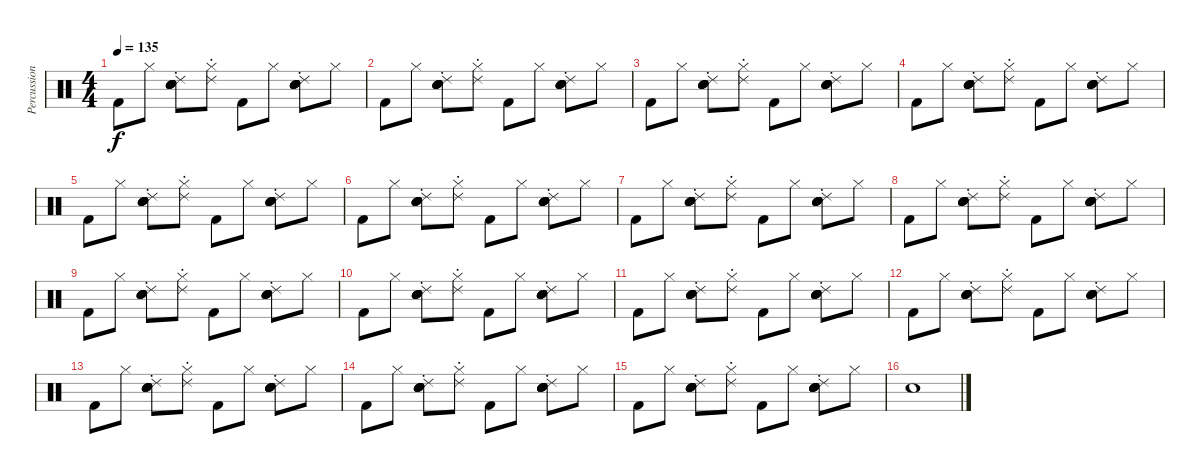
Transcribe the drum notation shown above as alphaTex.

\track ("Percussion" "Percussion") {instrument percussion}
\staff {score}
\articulation defaults
\ts (4 4)
\tempo 135
\clef neutral
\ks c "Kick (hit) 2".8{dy f} "Hi-Hat (closed)".8
("Snare (hit) 2" "Ride (choke) 2" "Hand Clap (hit)" "Hand Clap (hit)" "Hand Clap (hit)").8 ("Hi-Hat (closed)" "Ride (choke) 2").8 "Kick (hit) 2".8 "Hi-Hat (closed)".8 ("Snare (hit) 2" "Ride (choke) 2" "Hand Clap (hit)" "Hand Clap (hit)" "Hand Clap (hit)").8 "Hi-Hat (closed)".8 |
"Kick (hit) 2".8 "Hi-Hat (closed)".8 ("Snare (hit) 2" "Ride (choke) 2" "Hand Clap (hit)" "Hand Clap (hit)" "Hand Clap (hit)").8 ("Hi-Hat (closed)" "Ride (choke) 2").8 "Kick (hit) 2".8 "Hi-Hat (closed)".8 ("Snare (hit) 2" "Ride (choke) 2" "Hand Clap (hit)" "Hand Clap (hit)" "Hand Clap (hit)").8 "Hi-Hat (closed)".8 |
"Kick (hit) 2".8 "Hi-Hat (closed)".8 ("Snare (hit) 2" "Ride (choke) 2" "Hand Clap (hit)" "Hand Clap (hit)" "Hand Clap (hit)").8 ("Hi-Hat (closed)" "Ride (choke) 2").8 "Kick (hit) 2".8 "Hi-Hat (closed)".8 ("Snare (hit) 2" "Ride (choke) 2" "Hand Clap (hit)" "Hand Clap (hit)" "Hand Clap (hit)").8 "Hi-Hat (closed)".8 |
"Kick (hit) 2".8 "Hi-Hat (closed)".8 ("Snare (hit) 2" "Ride (choke) 2" "Hand Clap (hit)" "Hand Clap (hit)" "Hand Clap (hit)").8 ("Hi-Hat (closed)" "Ride (choke) 2").8 "Kick (hit) 2".8 "Hi-Hat (closed)".8 ("Snare (hit) 2" "Ride (choke) 2" "Hand Clap (hit)" "Hand Clap (hit)" "Hand Clap (hit)").8 "Hi-Hat (closed)".8 |
"Kick (hit) 2".8 "Hi-Hat (closed)".8 ("Snare (hit) 2" "Ride (choke) 2" "Hand Clap (hit)" "Hand Clap (hit)" "Hand Clap (hit)").8 ("Hi-Hat (closed)" "Ride (choke) 2").8 "Kick (hit) 2".8 "Hi-Hat (closed)".8 ("Snare (hit) 2" "Ride (choke) 2" "Hand Clap (hit)" "Hand Clap (hit)" "Hand Clap (hit)").8 "Hi-Hat (closed)".8 |
"Kick (hit) 2".8 "Hi-Hat (closed)".8 ("Snare (hit) 2" "Ride (choke) 2" "Hand Clap (hit)" "Hand Clap (hit)" "Hand Clap (hit)").8 ("Hi-Hat (closed)" "Ride (choke) 2").8 "Kick (hit) 2".8 "Hi-Hat (closed)".8 ("Snare (hit) 2" "Ride (choke) 2" "Hand Clap (hit)" "Hand Clap (hit)" "Hand Clap (hit)").8 "Hi-Hat (closed)".8 |
"Kick (hit) 2".8 "Hi-Hat (closed)".8 ("Snare (hit) 2" "Ride (choke) 2" "Hand Clap (hit)" "Hand Clap (hit)" "Hand Clap (hit)").8 ("Hi-Hat (closed)" "Ride (choke) 2").8 "Kick (hit) 2".8 "Hi-Hat (closed)".8 ("Snare (hit) 2" "Ride (choke) 2" "Hand Clap (hit)" "Hand Clap (hit)" "Hand Clap (hit)").8 "Hi-Hat (closed)".8 |
"Kick (hit) 2".8 "Hi-Hat (closed)".8 ("Snare (hit) 2" "Ride (choke) 2" "Hand Clap (hit)" "Hand Clap (hit)" "Hand Clap (hit)").8 ("Hi-Hat (closed)" "Ride (choke) 2").8 "Kick (hit) 2".8 "Hi-Hat (closed)".8 ("Snare (hit) 2" "Ride (choke) 2" "Hand Clap (hit)" "Hand Clap (hit)" "Hand Clap (hit)").8 "Hi-Hat (closed)".8 |
"Kick (hit) 2".8 "Hi-Hat (closed)".8 ("Snare (hit) 2" "Ride (choke) 2" "Hand Clap (hit)" "Hand Clap (hit)" "Hand Clap (hit)").8 ("Hi-Hat (closed)" "Ride (choke) 2").8 "Kick (hit) 2".8 "Hi-Hat (closed)".8 ("Snare (hit) 2" "Ride (choke) 2" "Hand Clap (hit)" "Hand Clap (hit)" "Hand Clap (hit)").8 "Hi-Hat (closed)".8 |
"Kick (hit) 2".8 "Hi-Hat (closed)".8 ("Snare (hit) 2" "Ride (choke) 2" "Hand Clap (hit)" "Hand Clap (hit)" "Hand Clap (hit)").8 ("Hi-Hat (closed)" "Ride (choke) 2").8 "Kick (hit) 2".8 "Hi-Hat (closed)".8 ("Snare (hit) 2" "Ride (choke) 2" "Hand Clap (hit)" "Hand Clap (hit)" "Hand Clap (hit)").8 "Hi-Hat (closed)".8 |
"Kick (hit) 2".8 "Hi-Hat (closed)".8 ("Snare (hit) 2" "Ride (choke) 2" "Hand Clap (hit)" "Hand Clap (hit)" "Hand Clap (hit)").8 ("Hi-Hat (closed)" "Ride (choke) 2").8 "Kick (hit) 2".8 "Hi-Hat (closed)".8 ("Snare (hit) 2" "Ride (choke) 2" "Hand Clap (hit)" "Hand Clap (hit)" "Hand Clap (hit)").8 "Hi-Hat (closed)".8 |
"Kick (hit) 2".8 "Hi-Hat (closed)".8 ("Snare (hit) 2" "Ride (choke) 2" "Hand Clap (hit)" "Hand Clap (hit)" "Hand Clap (hit)").8 ("Hi-Hat (closed)" "Ride (choke) 2").8 "Kick (hit) 2".8 "Hi-Hat (closed)".8 ("Snare (hit) 2" "Ride (choke) 2" "Hand Clap (hit)" "Hand Clap (hit)" "Hand Clap (hit)").8 "Hi-Hat (closed)".8 |
"Kick (hit) 2".8 "Hi-Hat (closed)".8 ("Snare (hit) 2" "Ride (choke) 2" "Hand Clap (hit)" "Hand Clap (hit)" "Hand Clap (hit)").8 ("Hi-Hat (closed)" "Ride (choke) 2").8 "Kick (hit) 2".8 "Hi-Hat (closed)".8 ("Snare (hit) 2" "Ride (choke) 2" "Hand Clap (hit)" "Hand Clap (hit)" "Hand Clap (hit)").8 "Hi-Hat (closed)".8 |
"Kick (hit) 2".8 "Hi-Hat (closed)".8 ("Snare (hit) 2" "Ride (choke) 2" "Hand Clap (hit)" "Hand Clap (hit)" "Hand Clap (hit)").8 ("Hi-Hat (closed)" "Ride (choke) 2").8 "Kick (hit) 2".8 "Hi-Hat (closed)".8 ("Snare (hit) 2" "Ride (choke) 2" "Hand Clap (hit)" "Hand Clap (hit)" "Hand Clap (hit)").8 "Hi-Hat (closed)".8 |
"Kick (hit) 2".8 "Hi-Hat (closed)".8 ("Snare (hit) 2" "Ride (choke) 2" "Hand Clap (hit)" "Hand Clap (hit)" "Hand Clap (hit)").8 ("Hi-Hat (closed)" "Ride (choke) 2").8 "Kick (hit) 2".8 "Hi-Hat (closed)".8 ("Snare (hit) 2" "Ride (choke) 2" "Hand Clap (hit)" "Hand Clap (hit)" "Hand Clap (hit)").8 "Hi-Hat (closed)".8 |
"Snare (hit) 2".1
